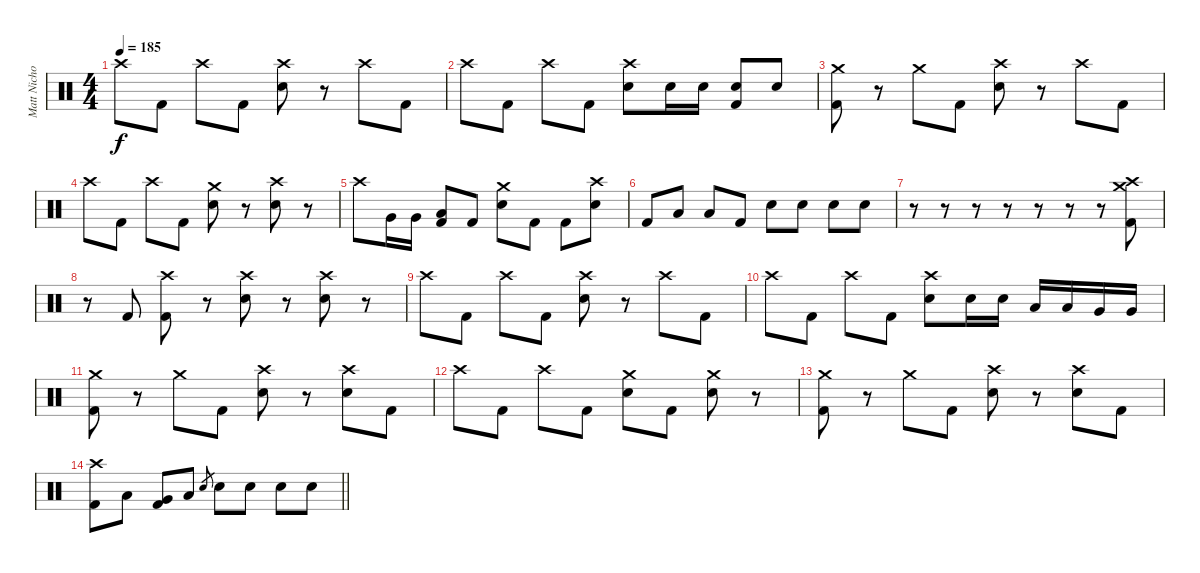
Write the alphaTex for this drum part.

\track ("Matt Nicholls" "Matt Nicho") {instrument percussion}
\staff {score}
\articulation defaults
\ts (4 4)
\tempo 185
\clef neutral
\ks c "Crash high (hit)".8{dy f} "Kick (hit) 2".8 "Crash high (hit)".8 "Kick (hit) 2".8
("Crash high (hit)" "Electric Snare (hit)").8 r.8 "Crash high (hit)".8 "Kick (hit) 2".8 |
"Crash high (hit)".8 "Kick (hit) 2".8 "Crash high (hit)".8 "Kick (hit) 2".8 ("Crash high (hit)" "Electric Snare (hit)").8 "Electric Snare (hit)".16 "Electric Snare (hit)".16 ("Electric Snare (hit)" "Kick (hit) 2").8 "Electric Snare (hit)".8 |
("Crash medium (hit)" "Kick (hit) 2").8 r.8 "Crash medium (hit)".8 "Kick (hit) 2".8 ("Crash high (hit)" "Electric Snare (hit)").8 r.8 "Crash high (hit)".8 "Kick (hit) 2".8 |
"Crash high (hit)".8 "Kick (hit) 2".8 "Crash high (hit)".8 "Kick (hit) 2".8 ("Crash medium (hit)" "Electric Snare (hit)").8 r.8 ("Crash high (hit)" "Electric Snare (hit)").8 r.8 |
"Crash high (hit)".8 "Very Low Tom (hit)".16 "Very Low Tom (hit)".16 ("Low Floor Tom (hit)" "Kick (hit) 2").8 "Kick (hit) 2".8 ("Crash medium (hit)" "Electric Snare (hit)").8 "Kick (hit) 2".8 "Kick (hit) 2".8 ("Crash high (hit)" "Electric Snare (hit)").8 |
"Kick (hit) 2".8 "Low Floor Tom (hit)".8 "Low Floor Tom (hit)".8 "Kick (hit) 2".8 "Electric Snare (hit)".8 "Electric Snare (hit)".8 "Electric Snare (hit)".8 "Electric Snare (hit)".8 |
r.8 r.8 r.8 r.8 r.8 r.8 r.8 ("Crash medium (hit)" "Crash high (hit)" "Kick (hit) 2").8 |
r.8 "Kick (hit) 2".8 ("Crash high (hit)" "Kick (hit) 2").8 r.8 ("Crash high (hit)" "Electric Snare (hit)").8 r.8 ("Crash high (hit)" "Electric Snare (hit)").8 r.8 |
"Crash high (hit)".8 "Kick (hit) 2".8 "Crash high (hit)".8 "Kick (hit) 2".8 ("Crash high (hit)" "Electric Snare (hit)").8 r.8 "Crash high (hit)".8 "Kick (hit) 2".8 |
"Crash high (hit)".8 "Kick (hit) 2".8 "Crash high (hit)".8 "Kick (hit) 2".8 ("Crash high (hit)" "Electric Snare (hit)").8 "Electric Snare (hit)".16 "Electric Snare (hit)".16 "Low Tom (hit)".16 "Low Tom (hit)".16 "Very Low Tom (hit)".16 "Very Low Tom (hit)".16 |
("Crash medium (hit)" "Kick (hit) 2").8 r.8 "Crash medium (hit)".8 "Kick (hit) 2".8 ("Crash high (hit)" "Electric Snare (hit)").8 r.8 ("Crash high (hit)" "Electric Snare (hit)").8 "Kick (hit) 2".8 |
"Crash high (hit)".8 "Kick (hit) 2".8 "Crash high (hit)".8 "Kick (hit) 2".8 ("Crash medium (hit)" "Electric Snare (hit)").8 "Kick (hit) 2".8 ("Crash medium (hit)" "Electric Snare (hit)").8 r.8 |
("Crash medium (hit)" "Kick (hit) 2").8 r.8 "Crash medium (hit)".8 "Kick (hit) 2".8 ("Crash high (hit)" "Electric Snare (hit)").8 r.8 ("Crash high (hit)" "Electric Snare (hit)").8 "Kick (hit) 2".8 |
\barLineRight lightlight
("Crash high (hit)" "Kick (hit) 2").8 "Low Tom (hit)".8 ("Very Low Tom (hit)" "Kick (hit) 2").8 "Low Floor Tom (hit)".8 "Electric Snare (hit)".8{gr} "Electric Snare (hit)".8 "Electric Snare (hit)".8 "Electric Snare (hit)".8 "Electric Snare (hit)".8
